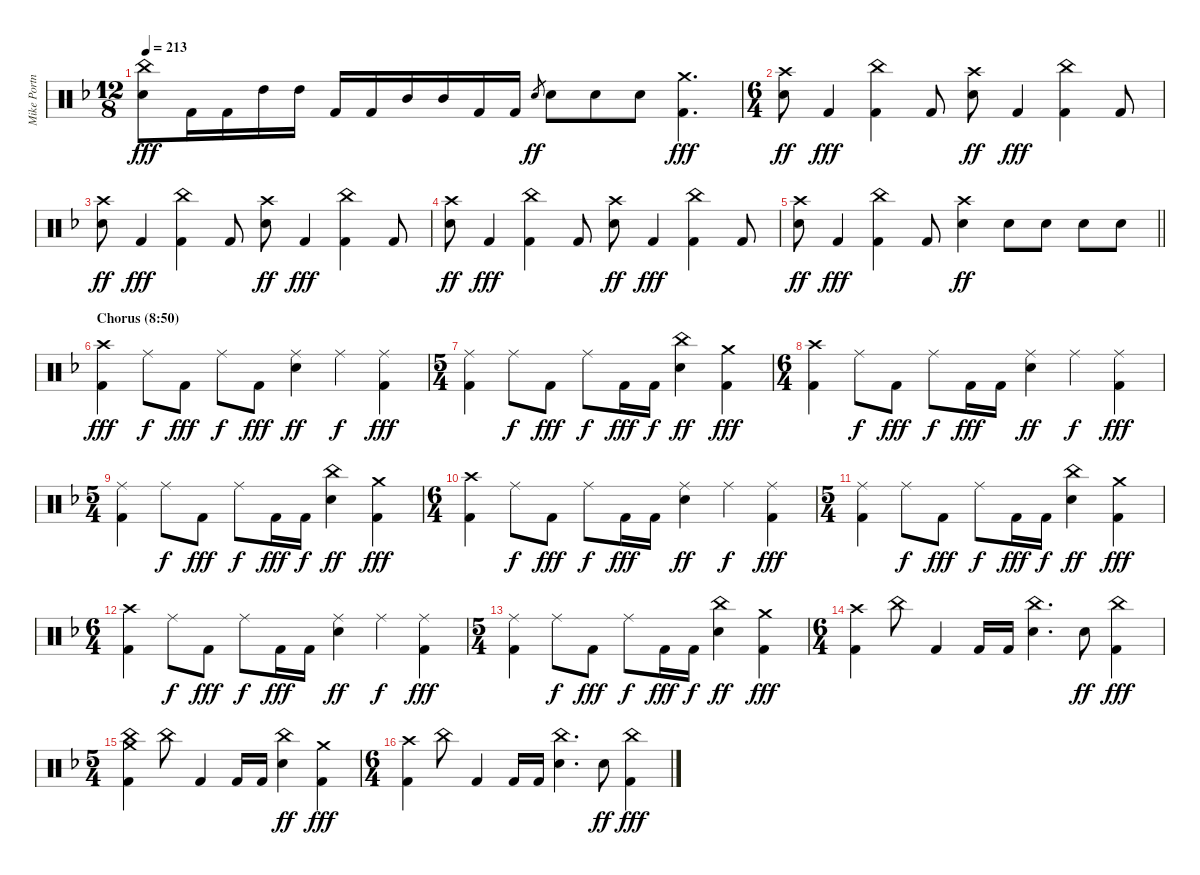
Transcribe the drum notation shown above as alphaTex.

\track ("Mike Portnoy Drums" "Mike Portn") {instrument percussion}
\staff {score}
\articulation defaults
\ts (12 8)
\tempo 213
\clef neutral
\ks dminor
("China (hit)" "Electric Snare (hit)").8{dy fff} "Kick (hit) 2".16 "Kick (hit) 2".16 "High Tom (hit)".16 "High Tom (hit)".16 "Kick (hit) 2".16 "Kick (hit) 2".16 "Mid Tom (hit)".16 "Mid Tom (hit)".16 "Kick (hit) 2".16 "Kick (hit) 2".16 "Electric Snare (hit)".8{gr dy ff} "Electric Snare (hit)".8 "Electric Snare (hit)".8 "Electric Snare (hit)".8 ("Crash medium (hit)" "Kick (hit) 2").4{d dy fff} |
\ts (6 4)
("Crash high (hit)" "Electric Snare (hit)").8{dy ff} "Kick (hit) 2".4{dy fff} ("China (hit)" "Kick (hit) 2").4 "Kick (hit) 2".8 ("Crash high (hit)" "Electric Snare (hit)").8{dy ff} "Kick (hit) 2".4{dy fff} ("China (hit)" "Kick (hit) 2").4 "Kick (hit) 2".8 |
("Crash high (hit)" "Electric Snare (hit)").8{dy ff} "Kick (hit) 2".4{dy fff} ("China (hit)" "Kick (hit) 2").4 "Kick (hit) 2".8 ("Crash high (hit)" "Electric Snare (hit)").8{dy ff} "Kick (hit) 2".4{dy fff} ("China (hit)" "Kick (hit) 2").4 "Kick (hit) 2".8 |
("Crash high (hit)" "Electric Snare (hit)").8{dy ff} "Kick (hit) 2".4{dy fff} ("China (hit)" "Kick (hit) 2").4 "Kick (hit) 2".8 ("Crash high (hit)" "Electric Snare (hit)").8{dy ff} "Kick (hit) 2".4{dy fff} ("China (hit)" "Kick (hit) 2").4 "Kick (hit) 2".8 |
\barLineRight lightlight
("Crash high (hit)" "Electric Snare (hit)").8{dy ff} "Kick (hit) 2".4{dy fff} ("China (hit)" "Kick (hit) 2").4 "Kick (hit) 2".8 ("Crash high (hit)" "Electric Snare (hit)").4{dy ff} "Electric Snare (hit)".8 "Electric Snare (hit)".8 "Electric Snare (hit)".8 "Electric Snare (hit)".8 |
\section ("" "Chorus (8:50)")
("Crash high (hit)" "Kick (hit) 2").4{dy fff} "Ride (middle)".8{dy f} "Kick (hit) 2".8{dy fff} "Ride (middle)".8{dy f} "Kick (hit) 2".8{dy fff} ("Ride (middle)" "Electric Snare (hit)").4{dy ff} "Ride (middle)".4{dy f} ("Ride (middle)" "Kick (hit) 2").4{dy fff} |
\ts (5 4)
("Ride (middle)" "Kick (hit) 2").4 "Ride (middle)".8{dy f} "Kick (hit) 2".8{dy fff} "Ride (middle)".8{dy f} "Kick (hit) 2".16{dy fff} "Kick (hit) 2".16{dy f} ("China (hit)" "Electric Snare (hit)").4{dy ff} ("Crash medium (hit)" "Kick (hit) 2").4{dy fff} |
\ts (6 4)
("Crash high (hit)" "Kick (hit) 2").4 "Ride (middle)".8{dy f} "Kick (hit) 2".8{dy fff} "Ride (middle)".8{dy f} "Kick (hit) 2".16{dy fff} "Kick (hit) 2".16 ("Ride (middle)" "Electric Snare (hit)").4{dy ff} "Ride (middle)".4{dy f} ("Ride (middle)" "Kick (hit) 2").4{dy fff} |
\ts (5 4)
("Ride (middle)" "Kick (hit) 2").4 "Ride (middle)".8{dy f} "Kick (hit) 2".8{dy fff} "Ride (middle)".8{dy f} "Kick (hit) 2".16{dy fff} "Kick (hit) 2".16{dy f} ("China (hit)" "Electric Snare (hit)").4{dy ff} ("Crash medium (hit)" "Kick (hit) 2").4{dy fff} |
\ts (6 4)
("Crash high (hit)" "Kick (hit) 2").4 "Ride (middle)".8{dy f} "Kick (hit) 2".8{dy fff} "Ride (middle)".8{dy f} "Kick (hit) 2".16{dy fff} "Kick (hit) 2".16 ("Ride (middle)" "Electric Snare (hit)").4{dy ff} "Ride (middle)".4{dy f} ("Ride (middle)" "Kick (hit) 2").4{dy fff} |
\ts (5 4)
("Ride (middle)" "Kick (hit) 2").4 "Ride (middle)".8{dy f} "Kick (hit) 2".8{dy fff} "Ride (middle)".8{dy f} "Kick (hit) 2".16{dy fff} "Kick (hit) 2".16{dy f} ("China (hit)" "Electric Snare (hit)").4{dy ff} ("Crash medium (hit)" "Kick (hit) 2").4{dy fff} |
\ts (6 4)
("Crash high (hit)" "Kick (hit) 2").4 "Ride (middle)".8{dy f} "Kick (hit) 2".8{dy fff} "Ride (middle)".8{dy f} "Kick (hit) 2".16{dy fff} "Kick (hit) 2".16 ("Ride (middle)" "Electric Snare (hit)").4{dy ff} "Ride (middle)".4{dy f} ("Ride (middle)" "Kick (hit) 2").4{dy fff} |
\ts (5 4)
("Ride (middle)" "Kick (hit) 2").4 "Ride (middle)".8{dy f} "Kick (hit) 2".8{dy fff} "Ride (middle)".8{dy f} "Kick (hit) 2".16{dy fff} "Kick (hit) 2".16{dy f} ("China (hit)" "Electric Snare (hit)").4{dy ff} ("Crash medium (hit)" "Kick (hit) 2").4{dy fff} |
\ts (6 4)
("Crash high (hit)" "Kick (hit) 2").4 "China (hit)".8 "Kick (hit) 2".4 "Kick (hit) 2".16 "Kick (hit) 2".16 ("China (hit)" "Electric Snare (hit)").4{d} "Electric Snare (hit)".8{dy ff} ("China (hit)" "Kick (hit) 2").4{dy fff} |
\ts (5 4)
("Crash medium (hit)" "China (hit)" "Kick (hit) 2").4 "China (hit)".8 "Kick (hit) 2".4 "Kick (hit) 2".16 "Kick (hit) 2".16 ("China (hit)" "Electric Snare (hit)").4{dy ff} ("Crash medium (hit)" "Kick (hit) 2").4{dy fff} |
\ts (6 4)
("Crash high (hit)" "Kick (hit) 2").4 "China (hit)".8 "Kick (hit) 2".4 "Kick (hit) 2".16 "Kick (hit) 2".16 ("China (hit)" "Electric Snare (hit)").4{d} "Electric Snare (hit)".8{dy ff} ("China (hit)" "Kick (hit) 2").4{dy fff}
